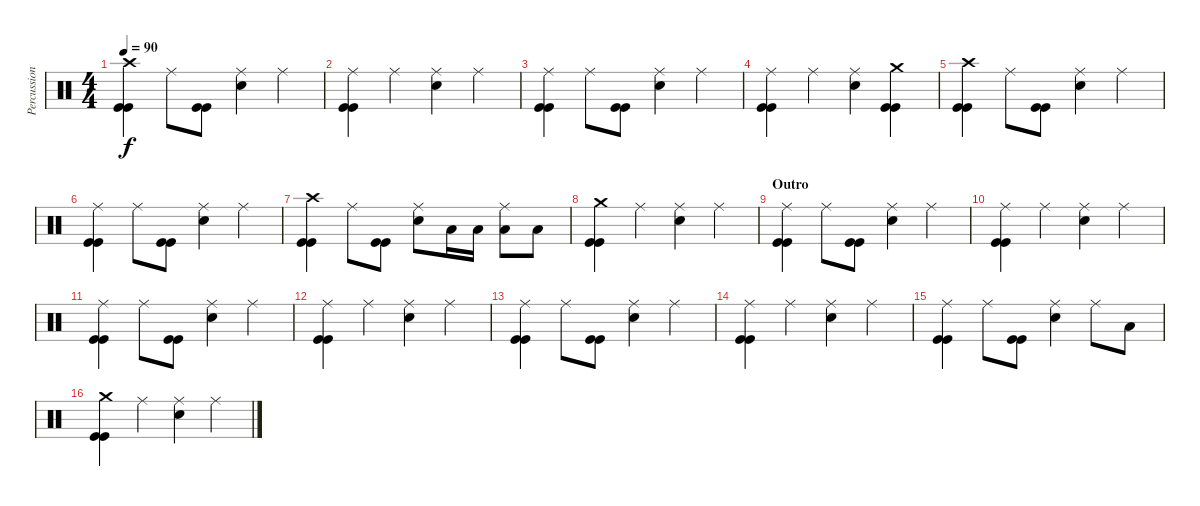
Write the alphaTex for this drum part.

\track ("Percussions" "Percussion") {instrument percussion}
\staff {score}
\articulation defaults
\ts (4 4)
\tempo 90
\clef neutral
\ks c
("Crash high (hit)" "Kick (hit)" "Kick (hit)").4{dy f} "Ride (middle)".8 ("Kick (hit)" "Kick (hit)").8 ("Ride (middle)" "Electric Snare (hit)").4 "Ride (middle)".4 |
("Ride (middle)" "Kick (hit)" "Kick (hit)").4 "Ride (middle)".4 ("Ride (middle)" "Electric Snare (hit)").4 "Ride (middle)".4 |
("Ride (middle)" "Kick (hit)" "Kick (hit)").4 "Ride (middle)".8 ("Kick (hit)" "Kick (hit)").8 ("Ride (middle)" "Electric Snare (hit)").4 "Ride (middle)".4 |
("Ride (middle)" "Kick (hit)" "Kick (hit)").4 "Ride (middle)".4 ("Ride (middle)" "Electric Snare (hit)").4 ("Crash medium (hit)" "Kick (hit)" "Kick (hit)").4 |
("Crash high (hit)" "Kick (hit)" "Kick (hit)").4 "Ride (middle)".8 ("Kick (hit)" "Kick (hit)").8 ("Ride (middle)" "Electric Snare (hit)").4 "Ride (middle)".4 |
("Ride (middle)" "Kick (hit)" "Kick (hit)").4 "Ride (middle)".8 ("Kick (hit)" "Kick (hit)").8 ("Ride (middle)" "Electric Snare (hit)").4 "Ride (middle)".4 |
("Crash high (hit)" "Kick (hit)" "Kick (hit)").4 "Ride (middle)".8 ("Kick (hit)" "Kick (hit)").8 ("Ride (middle)" "Electric Snare (hit)").8 "Low Tom (hit)".16 "Low Tom (hit)".16 ("Ride (middle)" "Low Tom (hit)").8 "Low Floor Tom (hit)".8 |
("Crash medium (hit)" "Kick (hit)" "Kick (hit)").4 "Ride (middle)".4 ("Ride (middle)" "Electric Snare (hit)").4 "Ride (middle)".4 |
\section ("" "Outro")
("Ride (middle)" "Kick (hit)" "Kick (hit)").4 "Ride (middle)".8 ("Kick (hit)" "Kick (hit)").8 ("Ride (middle)" "Electric Snare (hit)").4 "Ride (middle)".4 |
("Ride (middle)" "Kick (hit)" "Kick (hit)").4 "Ride (middle)".4 ("Ride (middle)" "Electric Snare (hit)").4 "Ride (middle)".4 |
("Ride (middle)" "Kick (hit)" "Kick (hit)").4 "Ride (middle)".8 ("Kick (hit)" "Kick (hit)").8 ("Ride (middle)" "Electric Snare (hit)").4 "Ride (middle)".4 |
("Ride (middle)" "Kick (hit)" "Kick (hit)").4 "Ride (middle)".4 ("Ride (middle)" "Electric Snare (hit)").4 "Ride (middle)".4 |
("Ride (middle)" "Kick (hit)" "Kick (hit)").4 "Ride (middle)".8 ("Kick (hit)" "Kick (hit)").8 ("Ride (middle)" "Electric Snare (hit)").4 "Ride (middle)".4 |
("Ride (middle)" "Kick (hit)" "Kick (hit)").4 "Ride (middle)".4 ("Ride (middle)" "Electric Snare (hit)").4 "Ride (middle)".4 |
("Ride (middle)" "Kick (hit)" "Kick (hit)").4 "Ride (middle)".8 ("Kick (hit)" "Kick (hit)").8 ("Ride (middle)" "Electric Snare (hit)").4 "Ride (middle)".8 "Low Floor Tom (hit)".8 |
("Crash medium (hit)" "Kick (hit)" "Kick (hit)").4 "Ride (middle)".4 ("Ride (middle)" "Electric Snare (hit)").4 "Ride (middle)".4
